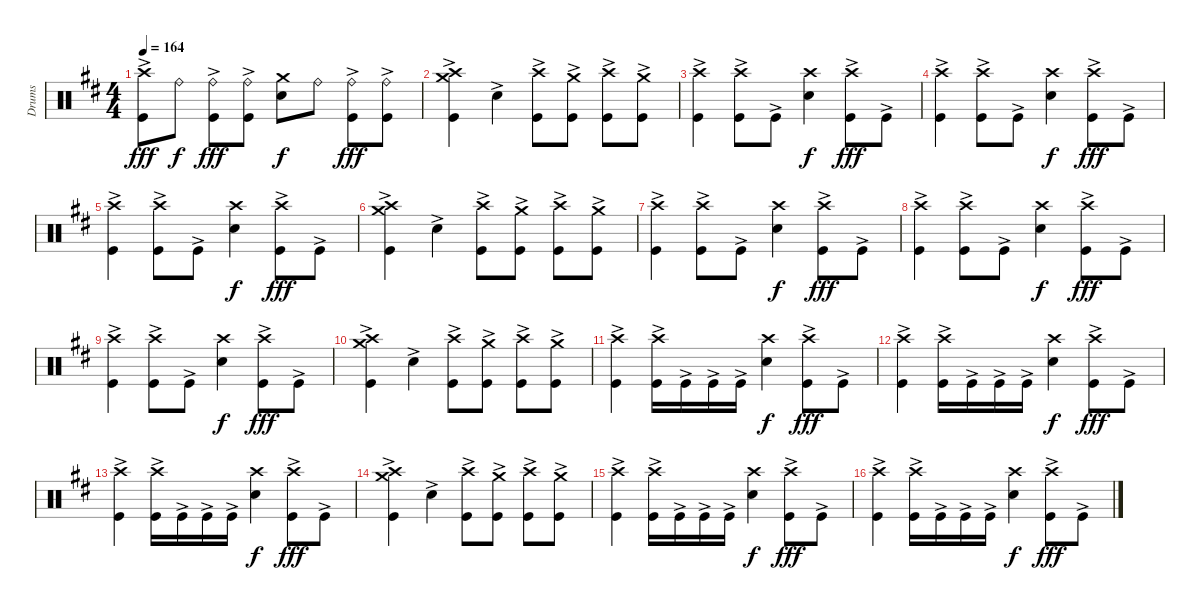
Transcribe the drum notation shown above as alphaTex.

\track ("Drums" "Drums") {instrument percussion}
\staff {score}
\articulation defaults
\ts (4 4)
\tempo 164
\clef neutral
\ks bminor
("Crash high (hit)" "Kick (hit)"{ac}).8{dy fff} "Ride (bell)".8{dy f} ("Ride (bell)" "Kick (hit)"{ac}).8{dy fff} ("Ride (bell)" "Kick (hit)"{ac}).8 ("Crash medium (hit)" "Snare (hit) 2").8{dy f} "Ride (bell)".8 ("Ride (bell)" "Kick (hit)"{ac}).8{dy fff} ("Ride (bell)" "Kick (hit)"{ac}).8 |
("Crash high (hit)" "Crash medium (hit)" "Kick (hit)"{ac}).4 "Snare (hit) 2"{ac}.4 ("Crash high (hit)" "Kick (hit)"{ac}).8 ("Crash medium (hit)" "Kick (hit)"{ac}).8 ("Crash high (hit)" "Kick (hit)"{ac}).8 ("Crash medium (hit)" "Kick (hit)"{ac}).8 |
("Crash high (hit)" "Kick (hit)"{ac}).4 ("Crash high (hit)" "Kick (hit)"{ac}).8 "Kick (hit)"{ac}.8 ("Crash high (hit)" "Snare (hit) 2").4{dy f} ("Crash high (hit)" "Kick (hit)"{ac}).8{dy fff} "Kick (hit)"{ac}.8 |
("Crash high (hit)" "Kick (hit)"{ac}).4 ("Crash high (hit)" "Kick (hit)"{ac}).8 "Kick (hit)"{ac}.8 ("Crash high (hit)" "Snare (hit) 2").4{dy f} ("Crash high (hit)" "Kick (hit)"{ac}).8{dy fff} "Kick (hit)"{ac}.8 |
("Crash high (hit)" "Kick (hit)"{ac}).4 ("Crash high (hit)" "Kick (hit)"{ac}).8 "Kick (hit)"{ac}.8 ("Crash high (hit)" "Snare (hit) 2").4{dy f} ("Crash high (hit)" "Kick (hit)"{ac}).8{dy fff} "Kick (hit)"{ac}.8 |
("Crash high (hit)" "Crash medium (hit)" "Kick (hit)"{ac}).4 "Snare (hit) 2"{ac}.4 ("Crash high (hit)" "Kick (hit)"{ac}).8 ("Crash medium (hit)" "Kick (hit)"{ac}).8 ("Crash high (hit)" "Kick (hit)"{ac}).8 ("Crash medium (hit)" "Kick (hit)"{ac}).8 |
("Crash high (hit)" "Kick (hit)"{ac}).4 ("Crash high (hit)" "Kick (hit)"{ac}).8 "Kick (hit)"{ac}.8 ("Crash high (hit)" "Snare (hit) 2").4{dy f} ("Crash high (hit)" "Kick (hit)"{ac}).8{dy fff} "Kick (hit)"{ac}.8 |
("Crash high (hit)" "Kick (hit)"{ac}).4 ("Crash high (hit)" "Kick (hit)"{ac}).8 "Kick (hit)"{ac}.8 ("Crash high (hit)" "Snare (hit) 2").4{dy f} ("Crash high (hit)" "Kick (hit)"{ac}).8{dy fff} "Kick (hit)"{ac}.8 |
("Crash high (hit)" "Kick (hit)"{ac}).4 ("Crash high (hit)" "Kick (hit)"{ac}).8 "Kick (hit)"{ac}.8 ("Crash high (hit)" "Snare (hit) 2").4{dy f} ("Crash high (hit)" "Kick (hit)"{ac}).8{dy fff} "Kick (hit)"{ac}.8 |
("Crash high (hit)" "Crash medium (hit)" "Kick (hit)"{ac}).4 "Snare (hit) 2"{ac}.4 ("Crash high (hit)" "Kick (hit)"{ac}).8 ("Crash medium (hit)" "Kick (hit)"{ac}).8 ("Crash high (hit)" "Kick (hit)"{ac}).8 ("Crash medium (hit)" "Kick (hit)"{ac}).8 |
("Crash high (hit)" "Kick (hit)"{ac}).4 ("Crash high (hit)" "Kick (hit)"{ac}).16 "Kick (hit)"{ac}.16 "Kick (hit)"{ac}.16 "Kick (hit)"{ac}.16 ("Crash high (hit)" "Snare (hit) 2").4{dy f} ("Crash high (hit)" "Kick (hit)"{ac}).8{dy fff} "Kick (hit)"{ac}.8 |
("Crash high (hit)" "Kick (hit)"{ac}).4 ("Crash high (hit)" "Kick (hit)"{ac}).16 "Kick (hit)"{ac}.16 "Kick (hit)"{ac}.16 "Kick (hit)"{ac}.16 ("Crash high (hit)" "Snare (hit) 2").4{dy f} ("Crash high (hit)" "Kick (hit)"{ac}).8{dy fff} "Kick (hit)"{ac}.8 |
("Crash high (hit)" "Kick (hit)"{ac}).4 ("Crash high (hit)" "Kick (hit)"{ac}).16 "Kick (hit)"{ac}.16 "Kick (hit)"{ac}.16 "Kick (hit)"{ac}.16 ("Crash high (hit)" "Snare (hit) 2").4{dy f} ("Crash high (hit)" "Kick (hit)"{ac}).8{dy fff} "Kick (hit)"{ac}.8 |
("Crash high (hit)" "Crash medium (hit)" "Kick (hit)"{ac}).4 "Snare (hit) 2"{ac}.4 ("Crash high (hit)" "Kick (hit)"{ac}).8 ("Crash medium (hit)" "Kick (hit)"{ac}).8 ("Crash high (hit)" "Kick (hit)"{ac}).8 ("Crash medium (hit)" "Kick (hit)"{ac}).8 |
("Crash high (hit)" "Kick (hit)"{ac}).4 ("Crash high (hit)" "Kick (hit)"{ac}).16 "Kick (hit)"{ac}.16 "Kick (hit)"{ac}.16 "Kick (hit)"{ac}.16 ("Crash high (hit)" "Snare (hit) 2").4{dy f} ("Crash high (hit)" "Kick (hit)"{ac}).8{dy fff} "Kick (hit)"{ac}.8 |
("Crash high (hit)" "Kick (hit)"{ac}).4 ("Crash high (hit)" "Kick (hit)"{ac}).16 "Kick (hit)"{ac}.16 "Kick (hit)"{ac}.16 "Kick (hit)"{ac}.16 ("Crash high (hit)" "Snare (hit) 2").4{dy f} ("Crash high (hit)" "Kick (hit)"{ac}).8{dy fff} "Kick (hit)"{ac}.8
